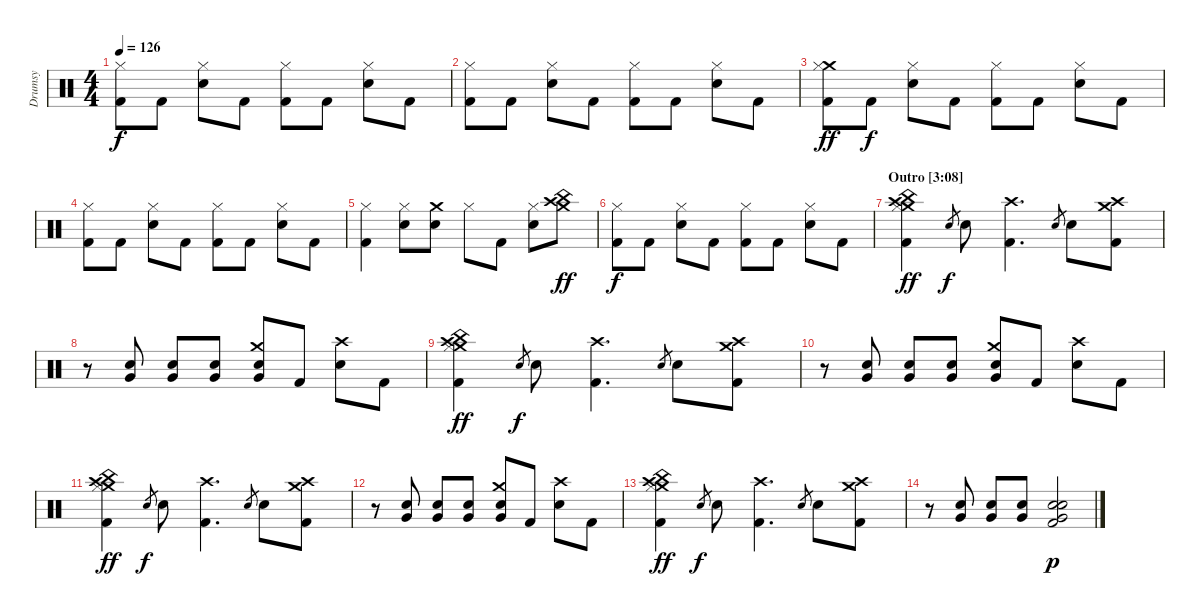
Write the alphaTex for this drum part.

\track ("Drumsy" "Drumsy") {instrument percussion}
\staff {score}
\articulation defaults
\ts (4 4)
\tempo 126
\clef neutral
\ks c
("Hi-Hat (closed)" "Kick (hit) 2").8{dy f} "Kick (hit) 2".8 ("Hi-Hat (closed)" "Electric Snare (hit)").8 "Kick (hit) 2".8 ("Hi-Hat (closed)" "Kick (hit) 2").8 "Kick (hit) 2".8 ("Hi-Hat (closed)" "Electric Snare (hit)").8 "Kick (hit) 2".8 |
("Hi-Hat (closed)" "Kick (hit) 2").8 "Kick (hit) 2".8 ("Hi-Hat (closed)" "Electric Snare (hit)").8 "Kick (hit) 2".8 ("Hi-Hat (closed)" "Kick (hit) 2").8 "Kick (hit) 2".8 ("Hi-Hat (closed)" "Electric Snare (hit)").8 "Kick (hit) 2".8 |
("Crash medium (hit)" "Hi-Hat (closed)" "Kick (hit) 2").8{dy ff} "Kick (hit) 2".8{dy f} ("Hi-Hat (closed)" "Electric Snare (hit)").8 "Kick (hit) 2".8 ("Hi-Hat (closed)" "Kick (hit) 2").8 "Kick (hit) 2".8 ("Hi-Hat (closed)" "Electric Snare (hit)").8 "Kick (hit) 2".8 |
("Hi-Hat (closed)" "Kick (hit) 2").8 "Kick (hit) 2".8 ("Hi-Hat (closed)" "Electric Snare (hit)").8 "Kick (hit) 2".8 ("Hi-Hat (closed)" "Kick (hit) 2").8 "Kick (hit) 2".8 ("Hi-Hat (closed)" "Electric Snare (hit)").8 "Kick (hit) 2".8 |
("Hi-Hat (closed)" "Kick (hit) 2").4 ("Hi-Hat (closed)" "Electric Snare (hit)").8 ("Crash medium (hit)" "Snare (hit) 2").8 "Hi-Hat (closed)".8 "Kick (hit) 2".8 ("Hi-Hat (closed)" "Electric Snare (hit)").8 ("Crash high (hit)" "Crash medium (hit)" "China (hit)").8{dy ff} |
("Hi-Hat (closed)" "Kick (hit) 2").8{dy f} "Kick (hit) 2".8 ("Hi-Hat (closed)" "Electric Snare (hit)").8 "Kick (hit) 2".8 ("Hi-Hat (closed)" "Kick (hit) 2").8 "Kick (hit) 2".8 ("Hi-Hat (closed)" "Electric Snare (hit)").8 "Kick (hit) 2".8 |
\section ("" "Outro [3:08]")
("Crash medium (hit)" "Hi-Hat (closed)" "Crash high (hit)" "China (hit)" "Kick (hit) 2").4{dy ff} "Electric Snare (hit)".8{gr dy f} "Electric Snare (hit)".8 ("Crash high (hit)" "Kick (hit) 2").4{d} "Electric Snare (hit)".8{gr} "Electric Snare (hit)".8 ("Crash medium (hit)" "Crash high (hit)" "Kick (hit) 2").8 |
r.8 ("Very Low Tom (hit)" "Electric Snare (hit)").8 ("Very Low Tom (hit)" "Electric Snare (hit)").8 ("Very Low Tom (hit)" "Electric Snare (hit)").8 ("Crash medium (hit)" "Very Low Tom (hit)" "Electric Snare (hit)").8 "Kick (hit) 2".8 ("Crash high (hit)" "Electric Snare (hit)").8 "Kick (hit) 2".8 |
("Crash medium (hit)" "Hi-Hat (closed)" "Crash high (hit)" "China (hit)" "Kick (hit) 2").4{dy ff} "Electric Snare (hit)".8{gr dy f} "Electric Snare (hit)".8 ("Crash high (hit)" "Kick (hit) 2").4{d} "Electric Snare (hit)".8{gr} "Electric Snare (hit)".8 ("Crash medium (hit)" "Crash high (hit)" "Kick (hit) 2").8 |
r.8 ("Very Low Tom (hit)" "Electric Snare (hit)").8 ("Very Low Tom (hit)" "Electric Snare (hit)").8 ("Very Low Tom (hit)" "Electric Snare (hit)").8 ("Crash medium (hit)" "Very Low Tom (hit)" "Electric Snare (hit)").8 "Kick (hit) 2".8 ("Crash high (hit)" "Electric Snare (hit)").8 "Kick (hit) 2".8 |
("Crash medium (hit)" "Hi-Hat (closed)" "Crash high (hit)" "China (hit)" "Kick (hit) 2").4{dy ff} "Electric Snare (hit)".8{gr dy f} "Electric Snare (hit)".8 ("Crash high (hit)" "Kick (hit) 2").4{d} "Electric Snare (hit)".8{gr} "Electric Snare (hit)".8 ("Crash medium (hit)" "Crash high (hit)" "Kick (hit) 2").8 |
r.8 ("Very Low Tom (hit)" "Electric Snare (hit)").8 ("Very Low Tom (hit)" "Electric Snare (hit)").8 ("Very Low Tom (hit)" "Electric Snare (hit)").8 ("Crash medium (hit)" "Very Low Tom (hit)" "Electric Snare (hit)").8 "Kick (hit) 2".8 ("Crash high (hit)" "Electric Snare (hit)").8 "Kick (hit) 2".8 |
("Crash medium (hit)" "Hi-Hat (closed)" "Crash high (hit)" "China (hit)" "Kick (hit) 2").4{dy ff} "Electric Snare (hit)".8{gr dy f} "Electric Snare (hit)".8 ("Crash high (hit)" "Kick (hit) 2").4{d} "Electric Snare (hit)".8{gr} "Electric Snare (hit)".8 ("Crash medium (hit)" "Crash high (hit)" "Kick (hit) 2").8 |
r.8 ("Very Low Tom (hit)" "Electric Snare (hit)").8 ("Very Low Tom (hit)" "Electric Snare (hit)").8 ("Very Low Tom (hit)" "Electric Snare (hit)").8 ("Snare (hit) 2" "Very Low Tom (hit)" "Electric Snare (hit)" "Kick (hit) 2").2{dy p}
